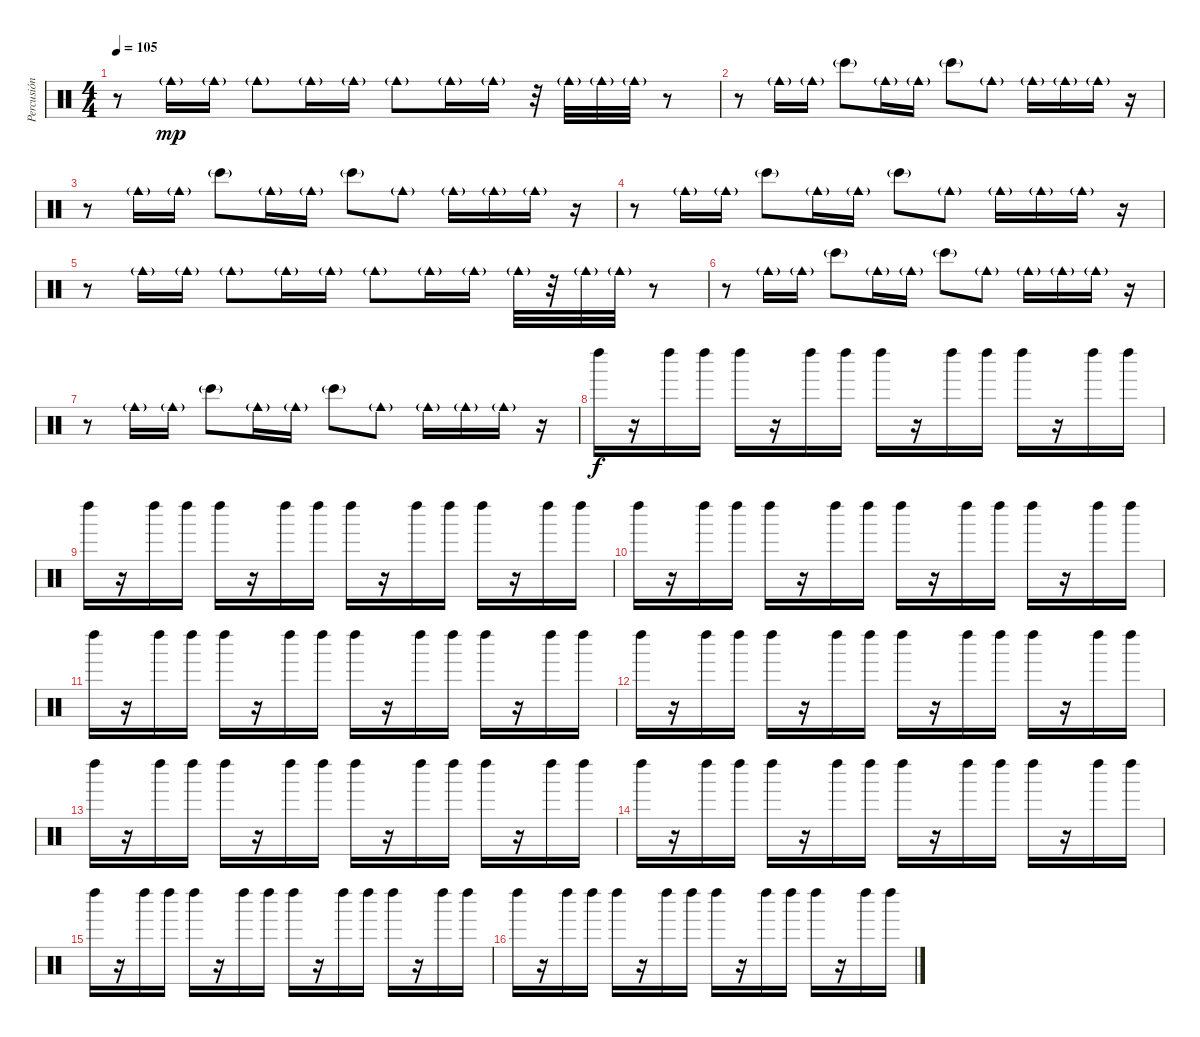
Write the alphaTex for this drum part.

\track ("Percusión" "Percusión") {instrument percussion}
\staff {score}
\articulation defaults
\ts (4 4)
\tempo 105
\clef neutral
\ks c
r.8{dy mp} "Cowbell medium (hit)"{g}.16 "Cowbell medium (hit)"{g}.16 "Cowbell medium (hit)"{g}.8 "Cowbell medium (hit)"{g}.16 "Cowbell medium (hit)"{g}.16 "Cowbell medium (hit)"{g}.8 "Cowbell medium (hit)"{g}.16 "Cowbell medium (hit)"{g}.16 r.32 "Cowbell medium (hit)"{g}.32 "Cowbell medium (hit)"{g}.32 "Cowbell medium (hit)"{g}.32 r.8 |
r.8 "Cowbell medium (hit)"{g}.16 "Cowbell medium (hit)"{g}.16 "Bongo High (hit)"{g}.8 "Cowbell medium (hit)"{g}.16 "Cowbell medium (hit)"{g}.16 "Bongo High (hit)"{g}.8 "Cowbell medium (hit)"{g}.8 "Cowbell medium (hit)"{g}.16 "Cowbell medium (hit)"{g}.16 "Cowbell medium (hit)"{g}.16 r.16 |
r.8 "Cowbell medium (hit)"{g}.16 "Cowbell medium (hit)"{g}.16 "Bongo High (hit)"{g}.8 "Cowbell medium (hit)"{g}.16 "Cowbell medium (hit)"{g}.16 "Bongo High (hit)"{g}.8 "Cowbell medium (hit)"{g}.8 "Cowbell medium (hit)"{g}.16 "Cowbell medium (hit)"{g}.16 "Cowbell medium (hit)"{g}.16 r.16 |
r.8 "Cowbell medium (hit)"{g}.16 "Cowbell medium (hit)"{g}.16 "Bongo High (hit)"{g}.8 "Cowbell medium (hit)"{g}.16 "Cowbell medium (hit)"{g}.16 "Bongo High (hit)"{g}.8 "Cowbell medium (hit)"{g}.8 "Cowbell medium (hit)"{g}.16 "Cowbell medium (hit)"{g}.16 "Cowbell medium (hit)"{g}.16 r.16 |
r.8 "Cowbell medium (hit)"{g}.16 "Cowbell medium (hit)"{g}.16 "Cowbell medium (hit)"{g}.8 "Cowbell medium (hit)"{g}.16 "Cowbell medium (hit)"{g}.16 "Cowbell medium (hit)"{g}.8 "Cowbell medium (hit)"{g}.16 "Cowbell medium (hit)"{g}.16 "Cowbell medium (hit)"{g}.32 r.32 "Cowbell medium (hit)"{g}.32 "Cowbell medium (hit)"{g}.32 r.8 |
r.8 "Cowbell medium (hit)"{g}.16 "Cowbell medium (hit)"{g}.16 "Bongo High (hit)"{g}.8 "Cowbell medium (hit)"{g}.16 "Cowbell medium (hit)"{g}.16 "Bongo High (hit)"{g}.8 "Cowbell medium (hit)"{g}.8 "Cowbell medium (hit)"{g}.16 "Cowbell medium (hit)"{g}.16 "Cowbell medium (hit)"{g}.16 r.16 |
r.8 "Cowbell medium (hit)"{g}.16 "Cowbell medium (hit)"{g}.16 "Bongo High (hit)"{g}.8 "Cowbell medium (hit)"{g}.16 "Cowbell medium (hit)"{g}.16 "Bongo High (hit)"{g}.8 "Cowbell medium (hit)"{g}.8 "Cowbell medium (hit)"{g}.16 "Cowbell medium (hit)"{g}.16 "Cowbell medium (hit)"{g}.16 r.16 |
"Left Maraca (hit)".16{dy f} r.16 "Left Maraca (hit)".16 "Left Maraca (hit)".16 "Left Maraca (hit)".16 r.16 "Left Maraca (hit)".16 "Left Maraca (hit)".16 "Left Maraca (hit)".16 r.16 "Left Maraca (hit)".16 "Left Maraca (hit)".16 "Left Maraca (hit)".16 r.16 "Left Maraca (hit)".16 "Left Maraca (hit)".16 |
"Left Maraca (hit)".16 r.16 "Left Maraca (hit)".16 "Left Maraca (hit)".16 "Left Maraca (hit)".16 r.16 "Left Maraca (hit)".16 "Left Maraca (hit)".16 "Left Maraca (hit)".16 r.16 "Left Maraca (hit)".16 "Left Maraca (hit)".16 "Left Maraca (hit)".16 r.16 "Left Maraca (hit)".16 "Left Maraca (hit)".16 |
"Left Maraca (hit)".16 r.16 "Left Maraca (hit)".16 "Left Maraca (hit)".16 "Left Maraca (hit)".16 r.16 "Left Maraca (hit)".16 "Left Maraca (hit)".16 "Left Maraca (hit)".16 r.16 "Left Maraca (hit)".16 "Left Maraca (hit)".16 "Left Maraca (hit)".16 r.16 "Left Maraca (hit)".16 "Left Maraca (hit)".16 |
"Left Maraca (hit)".16 r.16 "Left Maraca (hit)".16 "Left Maraca (hit)".16 "Left Maraca (hit)".16 r.16 "Left Maraca (hit)".16 "Left Maraca (hit)".16 "Left Maraca (hit)".16 r.16 "Left Maraca (hit)".16 "Left Maraca (hit)".16 "Left Maraca (hit)".16 r.16 "Left Maraca (hit)".16 "Left Maraca (hit)".16 |
"Left Maraca (hit)".16 r.16 "Left Maraca (hit)".16 "Left Maraca (hit)".16 "Left Maraca (hit)".16 r.16 "Left Maraca (hit)".16 "Left Maraca (hit)".16 "Left Maraca (hit)".16 r.16 "Left Maraca (hit)".16 "Left Maraca (hit)".16 "Left Maraca (hit)".16 r.16 "Left Maraca (hit)".16 "Left Maraca (hit)".16 |
"Left Maraca (hit)".16 r.16 "Left Maraca (hit)".16 "Left Maraca (hit)".16 "Left Maraca (hit)".16 r.16 "Left Maraca (hit)".16 "Left Maraca (hit)".16 "Left Maraca (hit)".16 r.16 "Left Maraca (hit)".16 "Left Maraca (hit)".16 "Left Maraca (hit)".16 r.16 "Left Maraca (hit)".16 "Left Maraca (hit)".16 |
"Left Maraca (hit)".16 r.16 "Left Maraca (hit)".16 "Left Maraca (hit)".16 "Left Maraca (hit)".16 r.16 "Left Maraca (hit)".16 "Left Maraca (hit)".16 "Left Maraca (hit)".16 r.16 "Left Maraca (hit)".16 "Left Maraca (hit)".16 "Left Maraca (hit)".16 r.16 "Left Maraca (hit)".16 "Left Maraca (hit)".16 |
"Left Maraca (hit)".16 r.16 "Left Maraca (hit)".16 "Left Maraca (hit)".16 "Left Maraca (hit)".16 r.16 "Left Maraca (hit)".16 "Left Maraca (hit)".16 "Left Maraca (hit)".16 r.16 "Left Maraca (hit)".16 "Left Maraca (hit)".16 "Left Maraca (hit)".16 r.16 "Left Maraca (hit)".16 "Left Maraca (hit)".16 |
"Left Maraca (hit)".16 r.16 "Left Maraca (hit)".16 "Left Maraca (hit)".16 "Left Maraca (hit)".16 r.16 "Left Maraca (hit)".16 "Left Maraca (hit)".16 "Left Maraca (hit)".16 r.16 "Left Maraca (hit)".16 "Left Maraca (hit)".16 "Left Maraca (hit)".16 r.16 "Left Maraca (hit)".16 "Left Maraca (hit)".16
